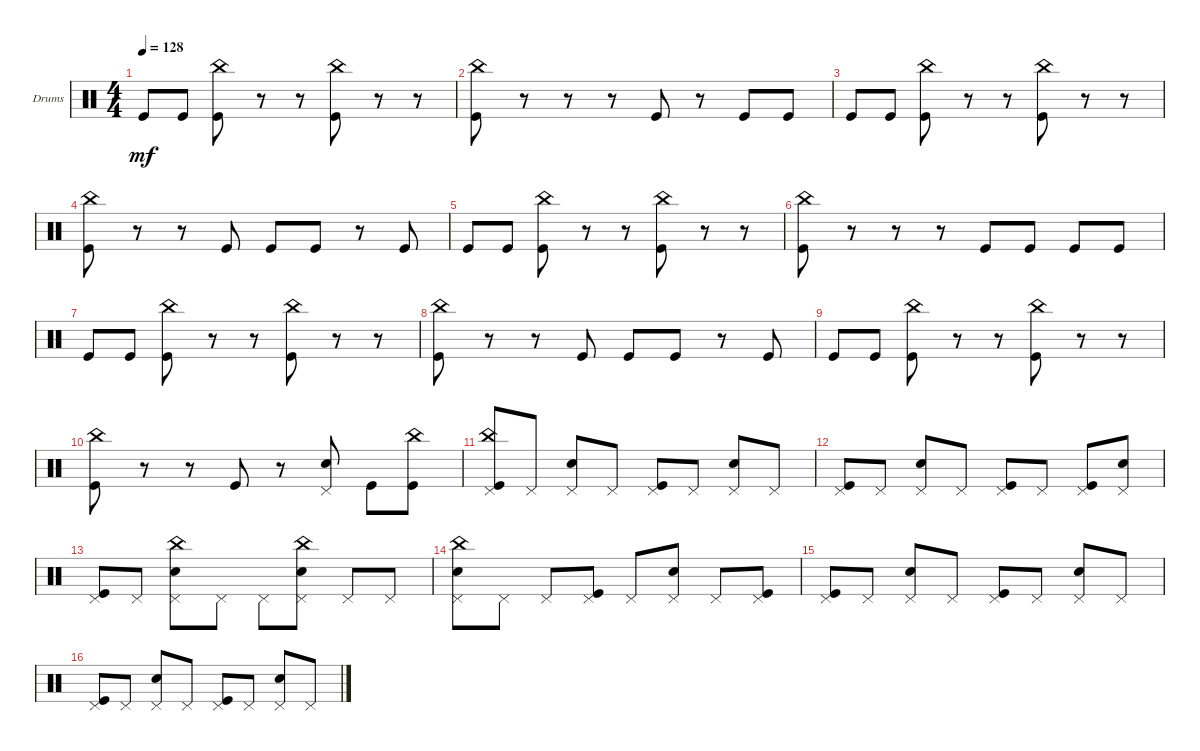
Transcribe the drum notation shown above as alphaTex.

\defaultSystemsLayout 4
\bracketExtendMode groupsimilarinstruments
\firstSystemTrackNameOrientation horizontal
\otherSystemsTrackNameOrientation horizontal
\track ("Drumkit" "Drums") {instrument percussion}
\staff {score}
\articulation defaults
\ts (4 4)
\tempo 128
\clef neutral
\ks c "Kick (hit)".8{dy mf} "Kick (hit)".8
("Kick (hit)" "China (hit)").8 r.8 r.8 ("Kick (hit)" "China (hit)").8 r.8 r.8 |
("China (hit)" "Kick (hit)").8 r.8 r.8 r.8 "Kick (hit)".8 r.8 "Kick (hit)".8 "Kick (hit)".8 |
"Kick (hit)".8 "Kick (hit)".8 ("Kick (hit)" "China (hit)").8 r.8 r.8 ("Kick (hit)" "China (hit)").8 r.8 r.8 |
("China (hit)" "Kick (hit)").8 r.8 r.8 "Kick (hit)".8 "Kick (hit)".8 "Kick (hit)".8 r.8 "Kick (hit)".8 |
"Kick (hit)".8 "Kick (hit)".8 ("Kick (hit)" "China (hit)").8 r.8 r.8 ("Kick (hit)" "China (hit)").8 r.8 r.8 |
("Kick (hit)" "China (hit)").8 r.8 r.8 r.8 "Kick (hit)".8 "Kick (hit)".8 "Kick (hit)".8 "Kick (hit)".8 |
"Kick (hit)".8 "Kick (hit)".8 ("Kick (hit)" "China (hit)").8 r.8 r.8 ("Kick (hit)" "China (hit)").8 r.8 r.8 |
("Kick (hit)" "China (hit)").8 r.8 r.8 "Kick (hit)".8 "Kick (hit)".8 "Kick (hit)".8 r.8 "Kick (hit)".8 |
"Kick (hit)".8 "Kick (hit)".8 ("Kick (hit)" "China (hit)").8 r.8 r.8 ("China (hit)" "Kick (hit)").8 r.8 r.8 |
("China (hit)" "Kick (hit)").8 r.8 r.8 "Kick (hit)".8 r.8 ("Snare (hit) 2" "Pedal Hi-Hat (hit)").8 "Kick (hit)".8 ("Kick (hit)" "China (hit)").8 |
("China (hit)" "Kick (hit)" "Pedal Hi-Hat (hit)").8 "Pedal Hi-Hat (hit)".8 ("Pedal Hi-Hat (hit)" "Snare (hit) 2").8 "Pedal Hi-Hat (hit)".8 ("Pedal Hi-Hat (hit)" "Kick (hit)").8 "Pedal Hi-Hat (hit)".8 ("Pedal Hi-Hat (hit)" "Snare (hit) 2").8 "Pedal Hi-Hat (hit)".8 |
("Kick (hit)" "Pedal Hi-Hat (hit)").8 "Pedal Hi-Hat (hit)".8 ("Pedal Hi-Hat (hit)" "Snare (hit) 2").8 "Pedal Hi-Hat (hit)".8 ("Pedal Hi-Hat (hit)" "Kick (hit)").8 "Pedal Hi-Hat (hit)".8 ("Pedal Hi-Hat (hit)" "Kick (hit)").8 ("Pedal Hi-Hat (hit)" "Snare (hit) 2").8 |
("Pedal Hi-Hat (hit)" "Kick (hit)").8 "Pedal Hi-Hat (hit)".8 ("Pedal Hi-Hat (hit)" "Snare (hit) 2" "China (hit)").8 "Pedal Hi-Hat (hit)".8 "Pedal Hi-Hat (hit)".8 ("Pedal Hi-Hat (hit)" "China (hit)" "Snare (hit) 2").8 "Pedal Hi-Hat (hit)".8 "Pedal Hi-Hat (hit)".8 |
("Snare (hit) 2" "China (hit)" "Pedal Hi-Hat (hit)").8 "Pedal Hi-Hat (hit)".8 "Pedal Hi-Hat (hit)".8 ("Pedal Hi-Hat (hit)" "Kick (hit)").8 "Pedal Hi-Hat (hit)".8 ("Pedal Hi-Hat (hit)" "Snare (hit) 2").8 "Pedal Hi-Hat (hit)".8 ("Pedal Hi-Hat (hit)" "Kick (hit)").8 |
("Kick (hit)" "Pedal Hi-Hat (hit)").8 "Pedal Hi-Hat (hit)".8 ("Pedal Hi-Hat (hit)" "Snare (hit) 2").8 "Pedal Hi-Hat (hit)".8 ("Pedal Hi-Hat (hit)" "Kick (hit)").8 "Pedal Hi-Hat (hit)".8 ("Pedal Hi-Hat (hit)" "Snare (hit) 2").8 "Pedal Hi-Hat (hit)".8 |
("Kick (hit)" "Pedal Hi-Hat (hit)").8 "Pedal Hi-Hat (hit)".8 ("Pedal Hi-Hat (hit)" "Snare (hit) 2").8 "Pedal Hi-Hat (hit)".8 ("Pedal Hi-Hat (hit)" "Kick (hit)").8 "Pedal Hi-Hat (hit)".8 ("Pedal Hi-Hat (hit)" "Snare (hit) 2").8 "Pedal Hi-Hat (hit)".8
